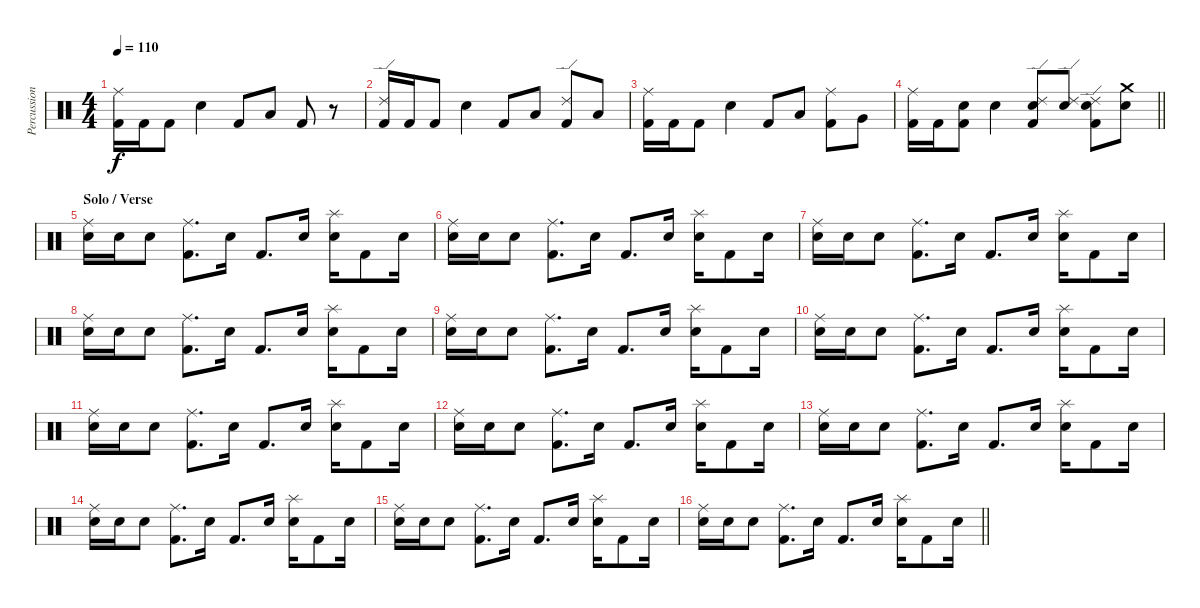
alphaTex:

\track ("Percussion" "Percussion") {instrument percussion}
\staff {score}
\articulation defaults
\ts (4 4)
\tempo 110
\clef neutral
\ks c
("Ride (middle)" "Kick (hit) 2").16{dy f} "Kick (hit) 2".16 "Kick (hit) 2".8 "Electric Snare (hit)".4 "Kick (hit) 2".8 "Low Tom (hit)".8 "Kick (hit) 2".8 r.8 |
("Ride (edge) 2" "Kick (hit) 2").16 "Kick (hit) 2".16 "Kick (hit) 2".8 "Snare (hit) 2".4 "Kick (hit) 2".8 "Low Tom (hit)".8 ("Ride (edge) 2" "Kick (hit) 2").8 "Low Tom (hit)".8 |
("Ride (middle)" "Kick (hit) 2").16 "Kick (hit) 2".16 "Kick (hit) 2".8 "Electric Snare (hit)".4 "Kick (hit) 2".8 "Low Tom (hit)".8 ("Ride (middle)" "Kick (hit) 2").8 "Very Low Tom (hit)".8 |
\barLineRight lightlight
("Ride (middle)" "Kick (hit) 2").16 "Kick (hit) 2".16 ("Electric Snare (hit)" "Kick (hit) 2").8 "Electric Snare (hit)".4 ("Ride (edge) 2" "Electric Snare (hit)" "Kick (hit) 2").8 ("Ride (edge) 2" "Snare (hit) 2").8 ("Ride (edge) 2" "Electric Snare (hit)" "Kick (hit) 2").8 ("Crash medium (hit)" "Electric Snare (hit)").8 |
\section ("" "Solo / Verse")
("Ride (middle)" "Electric Snare (hit)").16 "Electric Snare (hit)".16 "Electric Snare (hit)".8 ("Ride (middle)" "Kick (hit) 2").8{d} "Electric Snare (hit)".16 "Kick (hit) 2".8{d} "Electric Snare (hit)".16 ("Splash (hit)" "Electric Snare (hit)").16 "Kick (hit) 2".8 "Electric Snare (hit)".16 |
("Ride (middle)" "Electric Snare (hit)").16 "Electric Snare (hit)".16 "Electric Snare (hit)".8 ("Ride (middle)" "Kick (hit) 2").8{d} "Electric Snare (hit)".16 "Kick (hit) 2".8{d} "Electric Snare (hit)".16 ("Splash (hit)" "Electric Snare (hit)").16 "Kick (hit) 2".8 "Electric Snare (hit)".16 |
("Ride (middle)" "Electric Snare (hit)").16 "Electric Snare (hit)".16 "Electric Snare (hit)".8 ("Ride (middle)" "Kick (hit) 2").8{d} "Electric Snare (hit)".16 "Kick (hit) 2".8{d} "Electric Snare (hit)".16 ("Splash (hit)" "Electric Snare (hit)").16 "Kick (hit) 2".8 "Electric Snare (hit)".16 |
("Ride (middle)" "Electric Snare (hit)").16 "Electric Snare (hit)".16 "Electric Snare (hit)".8 ("Ride (middle)" "Kick (hit) 2").8{d} "Electric Snare (hit)".16 "Kick (hit) 2".8{d} "Electric Snare (hit)".16 ("Splash (hit)" "Electric Snare (hit)").16 "Kick (hit) 2".8 "Electric Snare (hit)".16 |
("Ride (middle)" "Electric Snare (hit)").16 "Electric Snare (hit)".16 "Electric Snare (hit)".8 ("Ride (middle)" "Kick (hit) 2").8{d} "Electric Snare (hit)".16 "Kick (hit) 2".8{d} "Electric Snare (hit)".16 ("Splash (hit)" "Electric Snare (hit)").16 "Kick (hit) 2".8 "Electric Snare (hit)".16 |
("Ride (middle)" "Electric Snare (hit)").16 "Electric Snare (hit)".16 "Electric Snare (hit)".8 ("Ride (middle)" "Kick (hit) 2").8{d} "Electric Snare (hit)".16 "Kick (hit) 2".8{d} "Electric Snare (hit)".16 ("Splash (hit)" "Electric Snare (hit)").16 "Kick (hit) 2".8 "Electric Snare (hit)".16 |
("Ride (middle)" "Electric Snare (hit)").16 "Electric Snare (hit)".16 "Electric Snare (hit)".8 ("Ride (middle)" "Kick (hit) 2").8{d} "Electric Snare (hit)".16 "Kick (hit) 2".8{d} "Electric Snare (hit)".16 ("Splash (hit)" "Electric Snare (hit)").16 "Kick (hit) 2".8 "Electric Snare (hit)".16 |
("Ride (middle)" "Electric Snare (hit)").16 "Electric Snare (hit)".16 "Electric Snare (hit)".8 ("Ride (middle)" "Kick (hit) 2").8{d} "Electric Snare (hit)".16 "Kick (hit) 2".8{d} "Electric Snare (hit)".16 ("Splash (hit)" "Electric Snare (hit)").16 "Kick (hit) 2".8 "Electric Snare (hit)".16 |
("Ride (middle)" "Electric Snare (hit)").16 "Electric Snare (hit)".16 "Electric Snare (hit)".8 ("Ride (middle)" "Kick (hit) 2").8{d} "Electric Snare (hit)".16 "Kick (hit) 2".8{d} "Electric Snare (hit)".16 ("Splash (hit)" "Electric Snare (hit)").16 "Kick (hit) 2".8 "Electric Snare (hit)".16 |
("Ride (middle)" "Electric Snare (hit)").16 "Electric Snare (hit)".16 "Electric Snare (hit)".8 ("Ride (middle)" "Kick (hit) 2").8{d} "Electric Snare (hit)".16 "Kick (hit) 2".8{d} "Electric Snare (hit)".16 ("Splash (hit)" "Electric Snare (hit)").16 "Kick (hit) 2".8 "Electric Snare (hit)".16 |
("Ride (middle)" "Electric Snare (hit)").16 "Electric Snare (hit)".16 "Electric Snare (hit)".8 ("Ride (middle)" "Kick (hit) 2").8{d} "Electric Snare (hit)".16 "Kick (hit) 2".8{d} "Electric Snare (hit)".16 ("Splash (hit)" "Electric Snare (hit)").16 "Kick (hit) 2".8 "Electric Snare (hit)".16 |
\barLineRight lightlight
("Ride (middle)" "Electric Snare (hit)").16 "Electric Snare (hit)".16 "Electric Snare (hit)".8 ("Ride (middle)" "Kick (hit) 2").8{d} "Electric Snare (hit)".16 "Kick (hit) 2".8{d} "Electric Snare (hit)".16 ("Splash (hit)" "Electric Snare (hit)").16 "Kick (hit) 2".8 "Electric Snare (hit)".16
